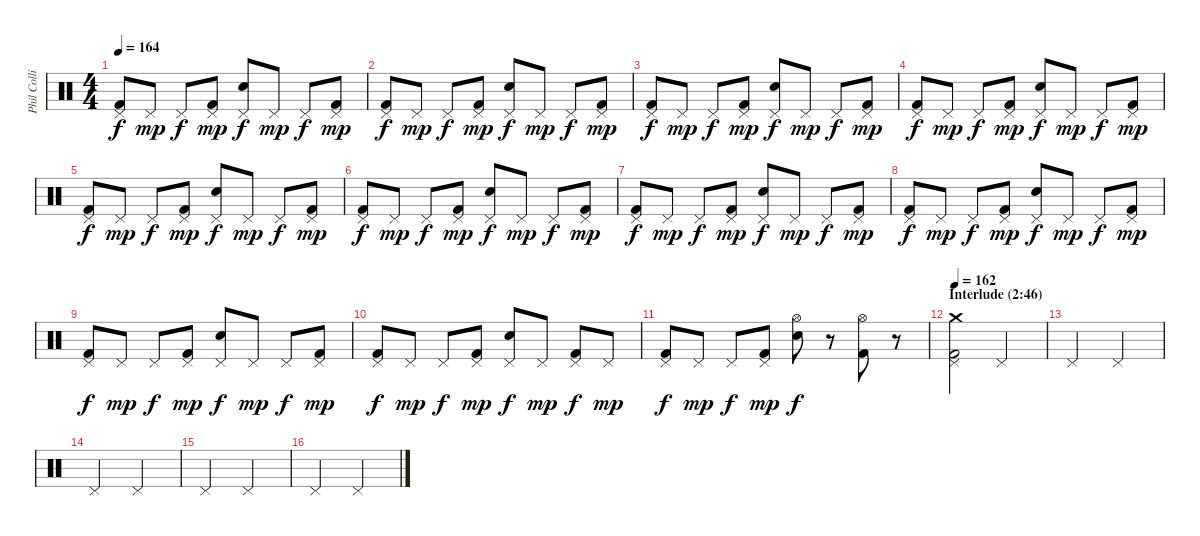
\track ("Phil Collins (drums)" "Phil Colli") {instrument percussion}
\staff {score}
\articulation defaults
\ts (4 4)
\tempo 164
\clef neutral
\ks c
("Pedal Hi-Hat (hit)" "Kick (hit) 2").8{dy f} "Pedal Hi-Hat (hit)".8{dy mp} "Pedal Hi-Hat (hit)".8{dy f} ("Pedal Hi-Hat (hit)" "Kick (hit) 2").8{dy mp} ("Pedal Hi-Hat (hit)" "Electric Snare (hit)").8{dy f} "Pedal Hi-Hat (hit)".8{dy mp} "Pedal Hi-Hat (hit)".8{dy f} ("Pedal Hi-Hat (hit)" "Kick (hit) 2").8{dy mp} |
("Pedal Hi-Hat (hit)" "Kick (hit) 2").8{dy f} "Pedal Hi-Hat (hit)".8{dy mp} "Pedal Hi-Hat (hit)".8{dy f} ("Pedal Hi-Hat (hit)" "Kick (hit) 2").8{dy mp} ("Pedal Hi-Hat (hit)" "Electric Snare (hit)").8{dy f} "Pedal Hi-Hat (hit)".8{dy mp} "Pedal Hi-Hat (hit)".8{dy f} ("Pedal Hi-Hat (hit)" "Kick (hit) 2").8{dy mp} |
("Pedal Hi-Hat (hit)" "Kick (hit) 2").8{dy f} "Pedal Hi-Hat (hit)".8{dy mp} "Pedal Hi-Hat (hit)".8{dy f} ("Pedal Hi-Hat (hit)" "Kick (hit) 2").8{dy mp} ("Pedal Hi-Hat (hit)" "Electric Snare (hit)").8{dy f} "Pedal Hi-Hat (hit)".8{dy mp} "Pedal Hi-Hat (hit)".8{dy f} ("Pedal Hi-Hat (hit)" "Kick (hit) 2").8{dy mp} |
("Pedal Hi-Hat (hit)" "Kick (hit) 2").8{dy f} "Pedal Hi-Hat (hit)".8{dy mp} "Pedal Hi-Hat (hit)".8{dy f} ("Pedal Hi-Hat (hit)" "Kick (hit) 2").8{dy mp} ("Pedal Hi-Hat (hit)" "Electric Snare (hit)").8{dy f} "Pedal Hi-Hat (hit)".8{dy mp} "Pedal Hi-Hat (hit)".8{dy f} ("Pedal Hi-Hat (hit)" "Kick (hit) 2").8{dy mp} |
("Pedal Hi-Hat (hit)" "Kick (hit) 2").8{dy f} "Pedal Hi-Hat (hit)".8{dy mp} "Pedal Hi-Hat (hit)".8{dy f} ("Pedal Hi-Hat (hit)" "Kick (hit) 2").8{dy mp} ("Pedal Hi-Hat (hit)" "Electric Snare (hit)").8{dy f} "Pedal Hi-Hat (hit)".8{dy mp} "Pedal Hi-Hat (hit)".8{dy f} ("Pedal Hi-Hat (hit)" "Kick (hit) 2").8{dy mp} |
("Pedal Hi-Hat (hit)" "Kick (hit) 2").8{dy f} "Pedal Hi-Hat (hit)".8{dy mp} "Pedal Hi-Hat (hit)".8{dy f} ("Pedal Hi-Hat (hit)" "Kick (hit) 2").8{dy mp} ("Pedal Hi-Hat (hit)" "Electric Snare (hit)").8{dy f} "Pedal Hi-Hat (hit)".8{dy mp} "Pedal Hi-Hat (hit)".8{dy f} ("Pedal Hi-Hat (hit)" "Kick (hit) 2").8{dy mp} |
("Pedal Hi-Hat (hit)" "Kick (hit) 2").8{dy f} "Pedal Hi-Hat (hit)".8{dy mp} "Pedal Hi-Hat (hit)".8{dy f} ("Pedal Hi-Hat (hit)" "Kick (hit) 2").8{dy mp} ("Pedal Hi-Hat (hit)" "Electric Snare (hit)").8{dy f} "Pedal Hi-Hat (hit)".8{dy mp} "Pedal Hi-Hat (hit)".8{dy f} ("Pedal Hi-Hat (hit)" "Kick (hit) 2").8{dy mp} |
("Pedal Hi-Hat (hit)" "Kick (hit) 2").8{dy f} "Pedal Hi-Hat (hit)".8{dy mp} "Pedal Hi-Hat (hit)".8{dy f} ("Pedal Hi-Hat (hit)" "Kick (hit) 2").8{dy mp} ("Pedal Hi-Hat (hit)" "Electric Snare (hit)").8{dy f} "Pedal Hi-Hat (hit)".8{dy mp} "Pedal Hi-Hat (hit)".8{dy f} ("Pedal Hi-Hat (hit)" "Kick (hit) 2").8{dy mp} |
("Pedal Hi-Hat (hit)" "Kick (hit) 2").8{dy f} "Pedal Hi-Hat (hit)".8{dy mp} "Pedal Hi-Hat (hit)".8{dy f} ("Pedal Hi-Hat (hit)" "Kick (hit) 2").8{dy mp} ("Pedal Hi-Hat (hit)" "Electric Snare (hit)").8{dy f} "Pedal Hi-Hat (hit)".8{dy mp} "Pedal Hi-Hat (hit)".8{dy f} ("Pedal Hi-Hat (hit)" "Kick (hit) 2").8{dy mp} |
("Pedal Hi-Hat (hit)" "Kick (hit) 2").8{dy f} "Pedal Hi-Hat (hit)".8{dy mp} "Pedal Hi-Hat (hit)".8{dy f} ("Pedal Hi-Hat (hit)" "Kick (hit) 2").8{dy mp} ("Pedal Hi-Hat (hit)" "Electric Snare (hit)").8{dy f} "Pedal Hi-Hat (hit)".8{dy mp} ("Pedal Hi-Hat (hit)" "Kick (hit) 2").8{dy f} "Pedal Hi-Hat (hit)".8{dy mp} |
("Pedal Hi-Hat (hit)" "Kick (hit) 2").8{dy f} "Pedal Hi-Hat (hit)".8{dy mp} "Pedal Hi-Hat (hit)".8{dy f} ("Pedal Hi-Hat (hit)" "Kick (hit) 2").8{dy mp} ("Hi-Hat (open)" "Electric Snare (hit)").8{dy f} r.8 ("Hi-Hat (open)" "Kick (hit) 2").8 r.8 |
\section ("" "Interlude (2:46)")
\tempo 162
("Crash medium (hit)" "Pedal Hi-Hat (hit)" "Kick (hit) 2").2 "Pedal Hi-Hat (hit)".2 |
"Pedal Hi-Hat (hit)".2 "Pedal Hi-Hat (hit)".2 |
"Pedal Hi-Hat (hit)".2 "Pedal Hi-Hat (hit)".2 |
"Pedal Hi-Hat (hit)".2 "Pedal Hi-Hat (hit)".2 |
"Pedal Hi-Hat (hit)".2 "Pedal Hi-Hat (hit)".2
